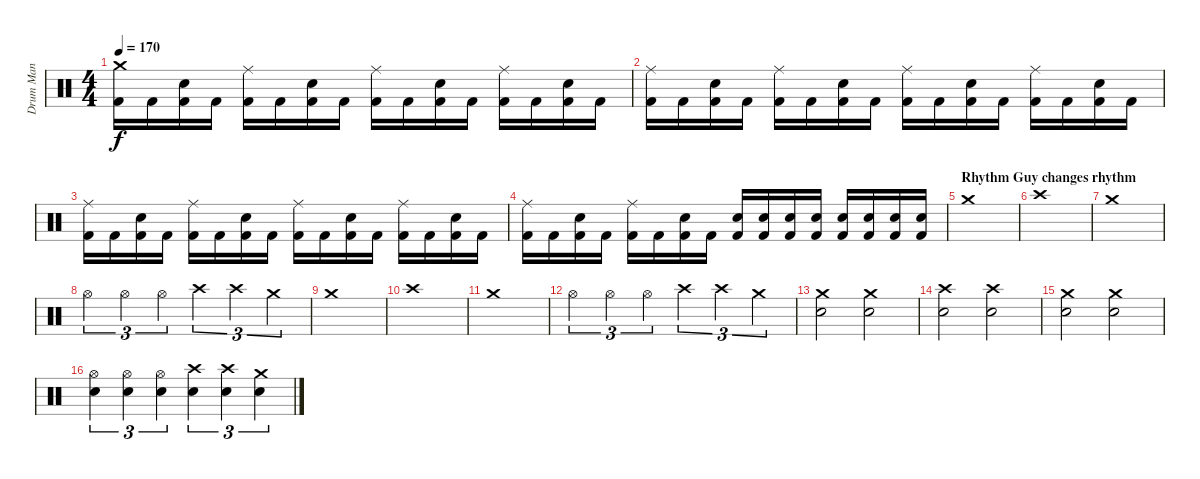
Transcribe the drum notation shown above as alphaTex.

\track ("Drum Man" "Drum Man") {instrument percussion}
\staff {score}
\articulation defaults
\ts (4 4)
\tempo 170
\clef neutral
\ks c
("Crash medium (hit)" "Kick (hit) 2").16{dy f} "Kick (hit) 2".16 ("Snare (hit) 2" "Kick (hit) 2").16 "Kick (hit) 2".16 ("Ride (middle)" "Kick (hit) 2").16 "Kick (hit) 2".16 ("Snare (hit) 2" "Kick (hit) 2").16 "Kick (hit) 2".16 ("Ride (middle)" "Kick (hit) 2").16 "Kick (hit) 2".16 ("Snare (hit) 2" "Kick (hit) 2").16 "Kick (hit) 2".16 ("Ride (middle)" "Kick (hit) 2").16 "Kick (hit) 2".16 ("Snare (hit) 2" "Kick (hit) 2").16 "Kick (hit) 2".16 |
("Ride (middle)" "Kick (hit) 2").16 "Kick (hit) 2".16 ("Snare (hit) 2" "Kick (hit) 2").16 "Kick (hit) 2".16 ("Ride (middle)" "Kick (hit) 2").16 "Kick (hit) 2".16 ("Snare (hit) 2" "Kick (hit) 2").16 "Kick (hit) 2".16 ("Ride (middle)" "Kick (hit) 2").16 "Kick (hit) 2".16 ("Snare (hit) 2" "Kick (hit) 2").16 "Kick (hit) 2".16 ("Ride (middle)" "Kick (hit) 2").16 "Kick (hit) 2".16 ("Snare (hit) 2" "Kick (hit) 2").16 "Kick (hit) 2".16 |
("Ride (middle)" "Kick (hit) 2").16 "Kick (hit) 2".16 ("Snare (hit) 2" "Kick (hit) 2").16 "Kick (hit) 2".16 ("Ride (middle)" "Kick (hit) 2").16 "Kick (hit) 2".16 ("Snare (hit) 2" "Kick (hit) 2").16 "Kick (hit) 2".16 ("Ride (middle)" "Kick (hit) 2").16 "Kick (hit) 2".16 ("Snare (hit) 2" "Kick (hit) 2").16 "Kick (hit) 2".16 ("Ride (middle)" "Kick (hit) 2").16 "Kick (hit) 2".16 ("Snare (hit) 2" "Kick (hit) 2").16 "Kick (hit) 2".16 |
("Ride (middle)" "Kick (hit) 2").16 "Kick (hit) 2".16 ("Snare (hit) 2" "Kick (hit) 2").16 "Kick (hit) 2".16 ("Ride (middle)" "Kick (hit) 2").16 "Kick (hit) 2".16 ("Snare (hit) 2" "Kick (hit) 2").16 "Kick (hit) 2".16 ("Electric Snare (hit)" "Kick (hit) 2").16 ("Electric Snare (hit)" "Kick (hit) 2").16 ("Electric Snare (hit)" "Kick (hit) 2").16 ("Electric Snare (hit)" "Kick (hit) 2").16 ("Electric Snare (hit)" "Kick (hit) 2").16 ("Electric Snare (hit)" "Kick (hit) 2").16 ("Electric Snare (hit)" "Kick (hit) 2").16 ("Electric Snare (hit)" "Kick (hit) 2").16 |
\section ("" "Rhythm Guy changes rhythm")
"Crash medium (hit)".1 |
"Crash high (hit)".1 |
"Crash medium (hit)".1 |
"Hi-Hat (open)".4{tu (3 2)} "Hi-Hat (open)".4{tu (3 2)} "Hi-Hat (open)".4{tu (3 2)} "Crash high (hit)".4{tu (3 2)} "Crash high (hit)".4{tu (3 2)} "Crash medium (hit)".4{tu (3 2)} |
"Crash medium (hit)".1 |
"Crash high (hit)".1 |
"Crash medium (hit)".1 |
"Hi-Hat (open)".4{tu (3 2)} "Hi-Hat (open)".4{tu (3 2)} "Hi-Hat (open)".4{tu (3 2)} "Crash high (hit)".4{tu (3 2)} "Crash high (hit)".4{tu (3 2)} "Crash medium (hit)".4{tu (3 2)} |
("Crash medium (hit)" "Electric Snare (hit)").2 ("Crash medium (hit)" "Electric Snare (hit)").2 |
("Crash high (hit)" "Electric Snare (hit)").2 ("Crash high (hit)" "Electric Snare (hit)").2 |
("Crash medium (hit)" "Electric Snare (hit)").2 ("Crash medium (hit)" "Electric Snare (hit)").2 |
("Hi-Hat (open)" "Electric Snare (hit)").4{tu (3 2)} ("Hi-Hat (open)" "Electric Snare (hit)").4{tu (3 2)} ("Hi-Hat (open)" "Electric Snare (hit)").4{tu (3 2)} ("Crash high (hit)" "Electric Snare (hit)").4{tu (3 2)} ("Crash high (hit)" "Electric Snare (hit)").4{tu (3 2)} ("Crash medium (hit)" "Electric Snare (hit)").4{tu (3 2)}
